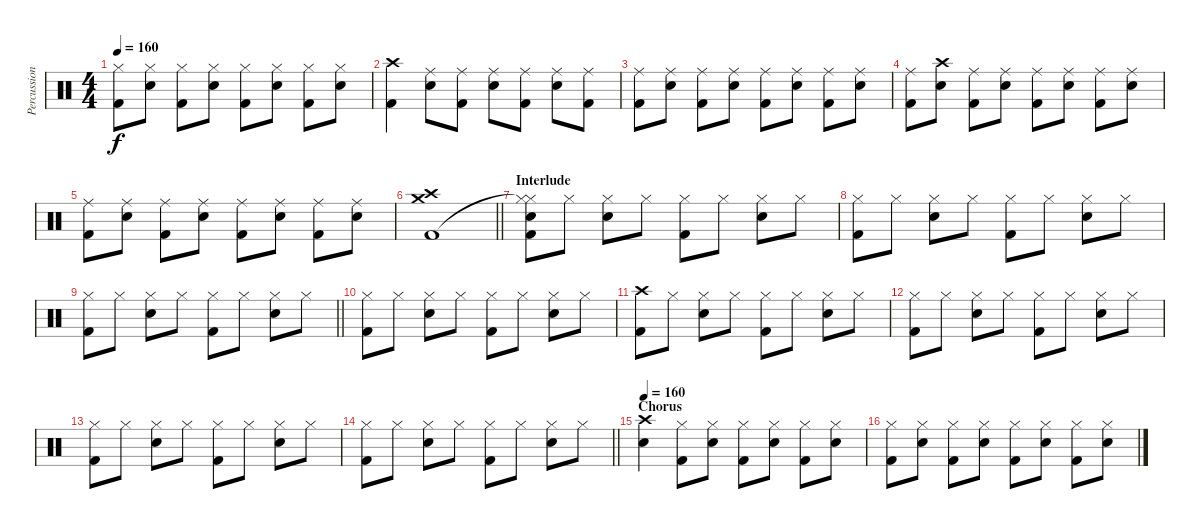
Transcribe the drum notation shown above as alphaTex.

\track ("Percussion" "Percussion") {instrument percussion}
\staff {score}
\articulation defaults
\ts (4 4)
\tempo 160
\clef neutral
\ks c
("Hi-Hat (closed)" "Kick (hit) 2").8{dy f} ("Hi-Hat (closed)" "Snare (hit) 2").8 ("Hi-Hat (closed)" "Kick (hit) 2").8 ("Hi-Hat (closed)" "Snare (hit) 2").8 ("Hi-Hat (closed)" "Kick (hit) 2").8 ("Hi-Hat (closed)" "Snare (hit) 2").8 ("Hi-Hat (closed)" "Kick (hit) 2").8 ("Hi-Hat (closed)" "Snare (hit) 2").8 |
("Crash high (hit)" "Kick (hit) 2").4 ("Ride (middle)" "Snare (hit) 2").8 ("Ride (middle)" "Kick (hit) 2").8 ("Ride (middle)" "Snare (hit) 2").8 ("Ride (middle)" "Kick (hit) 2").8 ("Ride (middle)" "Snare (hit) 2").8 ("Ride (middle)" "Kick (hit) 2").8 |
("Ride (middle)" "Kick (hit) 2").8 ("Ride (middle)" "Snare (hit) 2").8 ("Ride (middle)" "Kick (hit) 2").8 ("Ride (middle)" "Snare (hit) 2").8 ("Ride (middle)" "Kick (hit) 2").8 ("Ride (middle)" "Snare (hit) 2").8 ("Ride (middle)" "Kick (hit) 2").8 ("Ride (middle)" "Snare (hit) 2").8 |
("Ride (middle)" "Kick (hit) 2").8 ("Crash high (hit)" "Snare (hit) 2").8 ("Ride (middle)" "Kick (hit) 2").8 ("Ride (middle)" "Snare (hit) 2").8 ("Ride (middle)" "Kick (hit) 2").8 ("Ride (middle)" "Snare (hit) 2").8 ("Ride (middle)" "Kick (hit) 2").8 ("Ride (middle)" "Snare (hit) 2").8 |
("Ride (middle)" "Kick (hit) 2").8 ("Ride (middle)" "Snare (hit) 2").8 ("Ride (middle)" "Kick (hit) 2").8 ("Ride (middle)" "Snare (hit) 2").8 ("Ride (middle)" "Kick (hit) 2").8 ("Ride (middle)" "Snare (hit) 2").8 ("Ride (middle)" "Kick (hit) 2").8 ("Ride (middle)" "Snare (hit) 2").8 |
\barLineRight lightlight
("Crash medium (hit)" "Crash high (hit)" "Kick (hit) 2").1 |
\section ("" "Interlude")
("Hi-Hat (closed)" "Kick (hit) 2" "Hi-Hat (closed)"{t} "Snare (hit)").8 "Hi-Hat (closed)".8 ("Hi-Hat (closed)" "Snare (hit) 2").8 "Hi-Hat (closed)".8 ("Hi-Hat (closed)" "Kick (hit) 2").8 "Hi-Hat (closed)".8 ("Hi-Hat (closed)" "Snare (hit) 2").8 "Hi-Hat (closed)".8 |
("Hi-Hat (closed)" "Kick (hit) 2").8 "Hi-Hat (closed)".8 ("Hi-Hat (closed)" "Snare (hit) 2").8 "Hi-Hat (closed)".8 ("Hi-Hat (closed)" "Kick (hit) 2").8 "Hi-Hat (closed)".8 ("Hi-Hat (closed)" "Snare (hit) 2").8 "Hi-Hat (closed)".8 |
\barLineRight lightlight
("Hi-Hat (closed)" "Kick (hit) 2").8 "Hi-Hat (closed)".8 ("Hi-Hat (closed)" "Snare (hit) 2").8 "Hi-Hat (closed)".8 ("Hi-Hat (closed)" "Kick (hit) 2").8 "Hi-Hat (closed)".8 ("Hi-Hat (closed)" "Snare (hit) 2").8 "Hi-Hat (closed)".8 |
("Hi-Hat (closed)" "Kick (hit) 2").8 "Hi-Hat (closed)".8 ("Hi-Hat (closed)" "Snare (hit) 2").8 "Hi-Hat (closed)".8 ("Hi-Hat (closed)" "Kick (hit) 2").8 "Hi-Hat (closed)".8 ("Hi-Hat (closed)" "Snare (hit) 2").8 "Hi-Hat (closed)".8 |
("Crash high (hit)" "Kick (hit) 2").8 "Hi-Hat (closed)".8 ("Hi-Hat (closed)" "Snare (hit) 2").8 "Hi-Hat (closed)".8 ("Hi-Hat (closed)" "Kick (hit) 2").8 "Hi-Hat (closed)".8 ("Hi-Hat (closed)" "Snare (hit) 2").8 "Hi-Hat (closed)".8 |
("Hi-Hat (closed)" "Kick (hit) 2").8 "Hi-Hat (closed)".8 ("Hi-Hat (closed)" "Snare (hit) 2").8 "Hi-Hat (closed)".8 ("Hi-Hat (closed)" "Kick (hit) 2").8 "Hi-Hat (closed)".8 ("Hi-Hat (closed)" "Snare (hit) 2").8 "Hi-Hat (closed)".8 |
("Hi-Hat (closed)" "Kick (hit) 2").8 "Hi-Hat (closed)".8 ("Hi-Hat (closed)" "Snare (hit) 2").8 "Hi-Hat (closed)".8 ("Hi-Hat (closed)" "Kick (hit) 2").8 "Hi-Hat (closed)".8 ("Hi-Hat (closed)" "Snare (hit) 2").8 "Hi-Hat (closed)".8 |
\barLineRight lightlight
("Hi-Hat (closed)" "Kick (hit) 2").8 "Hi-Hat (closed)".8 ("Hi-Hat (closed)" "Snare (hit) 2").8 "Hi-Hat (closed)".8 ("Hi-Hat (closed)" "Kick (hit) 2").8 "Hi-Hat (closed)".8 ("Hi-Hat (closed)" "Snare (hit) 2").8 "Hi-Hat (closed)".8 |
\section ("" "Chorus")
\tempo 160
("Crash high (hit)" "Snare (hit) 2").4 ("Hi-Hat (closed)" "Kick (hit) 2").8 ("Hi-Hat (closed)" "Snare (hit) 2").8 ("Hi-Hat (closed)" "Kick (hit) 2").8 ("Hi-Hat (closed)" "Snare (hit) 2").8 ("Hi-Hat (closed)" "Kick (hit) 2").8 ("Hi-Hat (closed)" "Snare (hit) 2").8 |
("Hi-Hat (closed)" "Kick (hit) 2").8 ("Hi-Hat (closed)" "Snare (hit) 2").8 ("Hi-Hat (closed)" "Kick (hit) 2").8 ("Hi-Hat (closed)" "Snare (hit) 2").8 ("Hi-Hat (closed)" "Kick (hit) 2").8 ("Hi-Hat (closed)" "Snare (hit) 2").8 ("Hi-Hat (closed)" "Kick (hit) 2").8 ("Hi-Hat (closed)" "Snare (hit) 2").8
